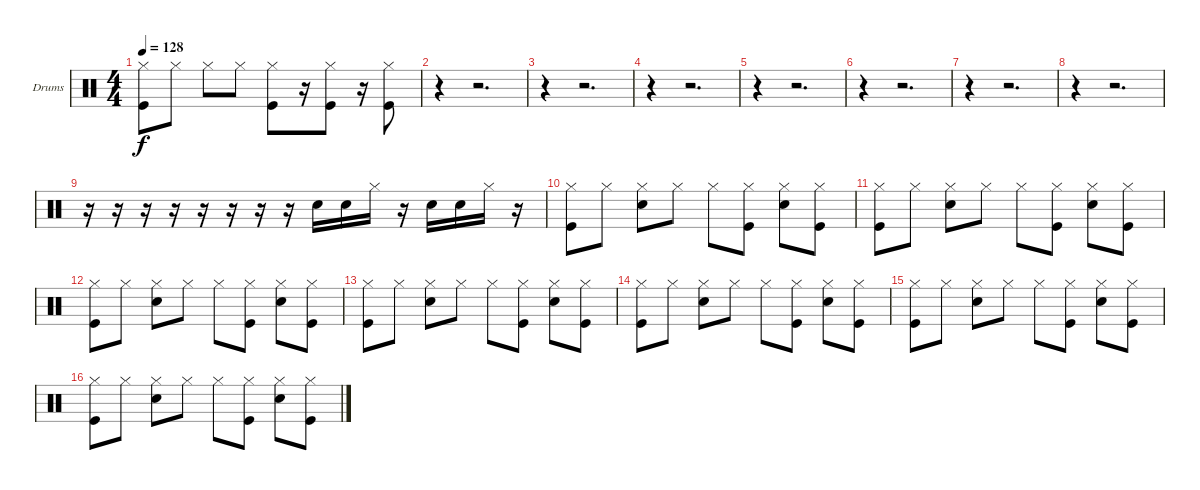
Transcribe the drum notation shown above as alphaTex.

\bracketExtendMode groupsimilarinstruments
\firstSystemTrackNameOrientation horizontal
\otherSystemsTrackNameOrientation horizontal
\track ("Drumkit" "Drums") {instrument percussion}
\staff {score}
\articulation defaults
\ts (4 4)
\tempo 128
\clef neutral
\ks c
("Kick (hit)" "Hi-Hat (closed)").8{dy f} "Hi-Hat (closed)".8 "Hi-Hat (closed)".8 "Hi-Hat (closed)".8 ("Kick (hit)" "Hi-Hat (closed)").8 r.16 ("Kick (hit)" "Hi-Hat (closed)").8 r.16 ("Kick (hit)" "Hi-Hat (closed)").8 |
r.4 r.2{d} |
r.4 r.2{d} |
r.4 r.2{d} |
r.4 r.2{d} |
r.4 r.2{d} |
r.4 r.2{d} |
r.4 r.2{d} |
r.16 r.16 r.16 r.16 r.16 r.16 r.16 r.16 "Snare (hit) 2".16 "Snare (hit) 2".16 "Hi-Hat (closed)".16 r.16 "Snare (hit) 2".16 "Snare (hit) 2".16 "Hi-Hat (closed)".16 r.16 |
("Kick (hit)" "Hi-Hat (closed)").8 "Hi-Hat (closed)".8 ("Snare (hit) 2" "Hi-Hat (closed)").8 "Hi-Hat (closed)".8 "Hi-Hat (closed)".8 ("Kick (hit)" "Hi-Hat (closed)").8 ("Snare (hit) 2" "Hi-Hat (closed)").8 ("Kick (hit)" "Hi-Hat (closed)").8 |
("Kick (hit)" "Hi-Hat (closed)").8 "Hi-Hat (closed)".8 ("Snare (hit) 2" "Hi-Hat (closed)").8 "Hi-Hat (closed)".8 "Hi-Hat (closed)".8 ("Kick (hit)" "Hi-Hat (closed)").8 ("Snare (hit) 2" "Hi-Hat (closed)").8 ("Kick (hit)" "Hi-Hat (closed)").8 |
("Kick (hit)" "Hi-Hat (closed)").8 "Hi-Hat (closed)".8 ("Snare (hit) 2" "Hi-Hat (closed)").8 "Hi-Hat (closed)".8 "Hi-Hat (closed)".8 ("Kick (hit)" "Hi-Hat (closed)").8 ("Snare (hit) 2" "Hi-Hat (closed)").8 ("Kick (hit)" "Hi-Hat (closed)").8 |
("Kick (hit)" "Hi-Hat (closed)").8 "Hi-Hat (closed)".8 ("Snare (hit) 2" "Hi-Hat (closed)").8 "Hi-Hat (closed)".8 "Hi-Hat (closed)".8 ("Kick (hit)" "Hi-Hat (closed)").8 ("Snare (hit) 2" "Hi-Hat (closed)").8 ("Kick (hit)" "Hi-Hat (closed)").8 |
("Kick (hit)" "Hi-Hat (closed)").8 "Hi-Hat (closed)".8 ("Snare (hit) 2" "Hi-Hat (closed)").8 "Hi-Hat (closed)".8 "Hi-Hat (closed)".8 ("Kick (hit)" "Hi-Hat (closed)").8 ("Snare (hit) 2" "Hi-Hat (closed)").8 ("Kick (hit)" "Hi-Hat (closed)").8 |
("Kick (hit)" "Hi-Hat (closed)").8 "Hi-Hat (closed)".8 ("Snare (hit) 2" "Hi-Hat (closed)").8 "Hi-Hat (closed)".8 "Hi-Hat (closed)".8 ("Kick (hit)" "Hi-Hat (closed)").8 ("Snare (hit) 2" "Hi-Hat (closed)").8 ("Kick (hit)" "Hi-Hat (closed)").8 |
("Kick (hit)" "Hi-Hat (closed)").8 "Hi-Hat (closed)".8 ("Snare (hit) 2" "Hi-Hat (closed)").8 "Hi-Hat (closed)".8 "Hi-Hat (closed)".8 ("Kick (hit)" "Hi-Hat (closed)").8 ("Snare (hit) 2" "Hi-Hat (closed)").8 ("Kick (hit)" "Hi-Hat (closed)").8
